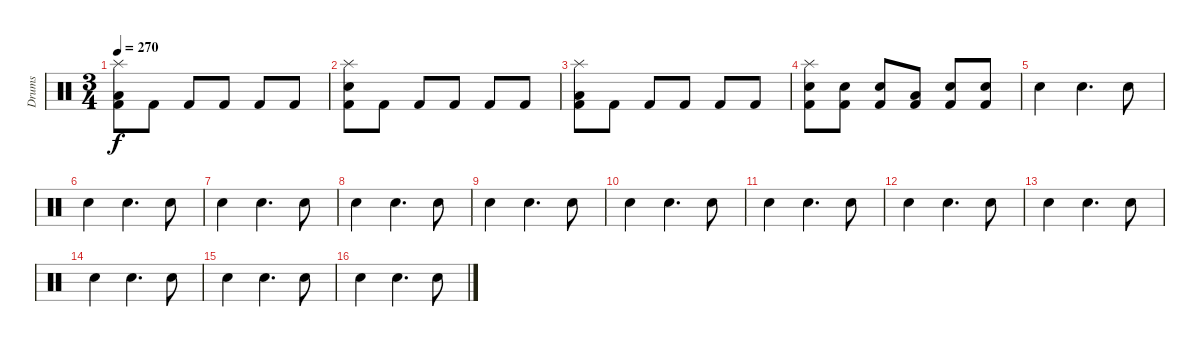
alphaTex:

\track ("Drums" "Drums") {instrument percussion}
\staff {score}
\articulation defaults
\ts (3 4)
\tempo 270
\clef neutral
\ks c
("Splash (hit)" "Low Tom (hit)" "Kick (hit) 2").8{dy f} "Kick (hit) 2".8 "Kick (hit) 2".8 "Kick (hit) 2".8 "Kick (hit) 2".8 "Kick (hit) 2".8 |
("Splash (hit)" "Electric Snare (hit)" "Kick (hit) 2").8 "Kick (hit) 2".8 "Kick (hit) 2".8 "Kick (hit) 2".8 "Kick (hit) 2".8 "Kick (hit) 2".8 |
("Splash (hit)" "Low Tom (hit)" "Kick (hit) 2").8 "Kick (hit) 2".8 "Kick (hit) 2".8 "Kick (hit) 2".8 "Kick (hit) 2".8 "Kick (hit) 2".8 |
("Splash (hit)" "Electric Snare (hit)" "Kick (hit) 2").8 ("Electric Snare (hit)" "Kick (hit) 2").8 ("Electric Snare (hit)" "Kick (hit) 2").8 ("Low Tom (hit)" "Kick (hit) 2").8 ("Electric Snare (hit)" "Kick (hit) 2").8 ("Electric Snare (hit)" "Kick (hit) 2").8 |
"Electric Snare (hit)".4 "Electric Snare (hit)".4{d} "Electric Snare (hit)".8 |
"Electric Snare (hit)".4 "Electric Snare (hit)".4{d} "Electric Snare (hit)".8 |
"Electric Snare (hit)".4 "Electric Snare (hit)".4{d} "Electric Snare (hit)".8 |
"Electric Snare (hit)".4 "Electric Snare (hit)".4{d} "Electric Snare (hit)".8 |
"Electric Snare (hit)".4 "Electric Snare (hit)".4{d} "Electric Snare (hit)".8 |
"Electric Snare (hit)".4 "Electric Snare (hit)".4{d} "Electric Snare (hit)".8 |
"Electric Snare (hit)".4 "Electric Snare (hit)".4{d} "Electric Snare (hit)".8 |
"Electric Snare (hit)".4 "Electric Snare (hit)".4{d} "Electric Snare (hit)".8 |
"Electric Snare (hit)".4 "Electric Snare (hit)".4{d} "Electric Snare (hit)".8 |
"Electric Snare (hit)".4 "Electric Snare (hit)".4{d} "Electric Snare (hit)".8 |
"Electric Snare (hit)".4 "Electric Snare (hit)".4{d} "Electric Snare (hit)".8 |
"Electric Snare (hit)".4 "Electric Snare (hit)".4{d} "Electric Snare (hit)".8
